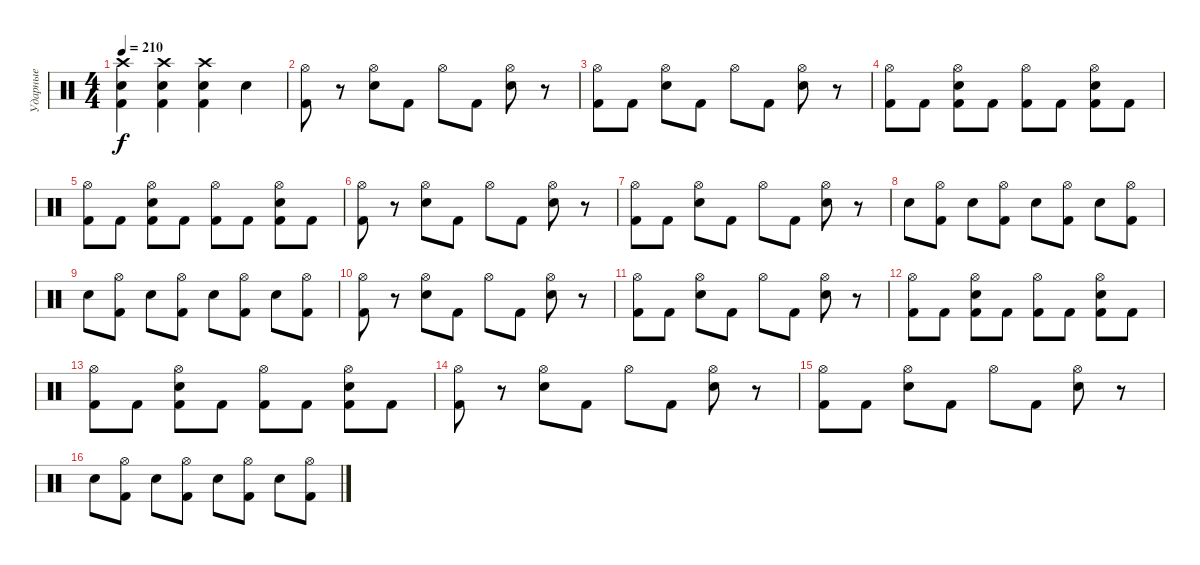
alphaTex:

\track ("Ударные" "Ударные") {instrument percussion}
\staff {score}
\articulation defaults
\ts (4 4)
\tempo 210
\clef neutral
\ks c
("Electric Snare (hit)" "Kick (hit) 2" "Crash high (hit)").4{dy f} ("Kick (hit) 2" "Electric Snare (hit)" "Crash high (hit)").4 ("Kick (hit) 2" "Electric Snare (hit)" "Crash high (hit)").4 "Electric Snare (hit)".4 |
("Kick (hit) 2" "Hi-Hat (open)").8 r.8 ("Electric Snare (hit)" "Hi-Hat (open)").8 "Kick (hit) 2".8 "Hi-Hat (open)".8 "Kick (hit) 2".8 ("Electric Snare (hit)" "Hi-Hat (open)").8 r.8 |
("Kick (hit) 2" "Hi-Hat (open)").8 "Kick (hit) 2".8 ("Electric Snare (hit)" "Hi-Hat (open)").8 "Kick (hit) 2".8 "Hi-Hat (open)".8 "Kick (hit) 2".8 ("Electric Snare (hit)" "Hi-Hat (open)").8 r.8 |
("Kick (hit) 2" "Hi-Hat (open)").8 "Kick (hit) 2".8 ("Kick (hit) 2" "Electric Snare (hit)" "Hi-Hat (open)").8 "Kick (hit) 2".8 ("Kick (hit) 2" "Hi-Hat (open)").8 "Kick (hit) 2".8 ("Kick (hit) 2" "Electric Snare (hit)" "Hi-Hat (open)").8 "Kick (hit) 2".8 |
("Kick (hit) 2" "Hi-Hat (open)").8 "Kick (hit) 2".8 ("Kick (hit) 2" "Electric Snare (hit)" "Hi-Hat (open)").8 "Kick (hit) 2".8 ("Kick (hit) 2" "Hi-Hat (open)").8 "Kick (hit) 2".8 ("Kick (hit) 2" "Electric Snare (hit)" "Hi-Hat (open)").8 "Kick (hit) 2".8 |
("Kick (hit) 2" "Hi-Hat (open)").8 r.8 ("Electric Snare (hit)" "Hi-Hat (open)").8 "Kick (hit) 2".8 "Hi-Hat (open)".8 "Kick (hit) 2".8 ("Electric Snare (hit)" "Hi-Hat (open)").8 r.8 |
("Kick (hit) 2" "Hi-Hat (open)").8 "Kick (hit) 2".8 ("Electric Snare (hit)" "Hi-Hat (open)").8 "Kick (hit) 2".8 "Hi-Hat (open)".8 "Kick (hit) 2".8 ("Electric Snare (hit)" "Hi-Hat (open)").8 r.8 |
"Electric Snare (hit)".8 ("Kick (hit) 2" "Hi-Hat (open)").8 "Electric Snare (hit)".8 ("Kick (hit) 2" "Hi-Hat (open)").8 "Electric Snare (hit)".8 ("Kick (hit) 2" "Hi-Hat (open)").8 "Electric Snare (hit)".8 ("Kick (hit) 2" "Hi-Hat (open)").8 |
"Electric Snare (hit)".8 ("Kick (hit) 2" "Hi-Hat (open)").8 "Electric Snare (hit)".8 ("Kick (hit) 2" "Hi-Hat (open)").8 "Electric Snare (hit)".8 ("Kick (hit) 2" "Hi-Hat (open)").8 "Electric Snare (hit)".8 ("Kick (hit) 2" "Hi-Hat (open)").8 |
("Kick (hit) 2" "Hi-Hat (open)").8 r.8 ("Electric Snare (hit)" "Hi-Hat (open)").8 "Kick (hit) 2".8 "Hi-Hat (open)".8 "Kick (hit) 2".8 ("Electric Snare (hit)" "Hi-Hat (open)").8 r.8 |
("Kick (hit) 2" "Hi-Hat (open)").8 "Kick (hit) 2".8 ("Electric Snare (hit)" "Hi-Hat (open)").8 "Kick (hit) 2".8 "Hi-Hat (open)".8 "Kick (hit) 2".8 ("Electric Snare (hit)" "Hi-Hat (open)").8 r.8 |
("Kick (hit) 2" "Hi-Hat (open)").8 "Kick (hit) 2".8 ("Kick (hit) 2" "Electric Snare (hit)" "Hi-Hat (open)").8 "Kick (hit) 2".8 ("Kick (hit) 2" "Hi-Hat (open)").8 "Kick (hit) 2".8 ("Kick (hit) 2" "Electric Snare (hit)" "Hi-Hat (open)").8 "Kick (hit) 2".8 |
("Kick (hit) 2" "Hi-Hat (open)").8 "Kick (hit) 2".8 ("Kick (hit) 2" "Electric Snare (hit)" "Hi-Hat (open)").8 "Kick (hit) 2".8 ("Kick (hit) 2" "Hi-Hat (open)").8 "Kick (hit) 2".8 ("Kick (hit) 2" "Electric Snare (hit)" "Hi-Hat (open)").8 "Kick (hit) 2".8 |
("Kick (hit) 2" "Hi-Hat (open)").8 r.8 ("Electric Snare (hit)" "Hi-Hat (open)").8 "Kick (hit) 2".8 "Hi-Hat (open)".8 "Kick (hit) 2".8 ("Electric Snare (hit)" "Hi-Hat (open)").8 r.8 |
("Kick (hit) 2" "Hi-Hat (open)").8 "Kick (hit) 2".8 ("Electric Snare (hit)" "Hi-Hat (open)").8 "Kick (hit) 2".8 "Hi-Hat (open)".8 "Kick (hit) 2".8 ("Electric Snare (hit)" "Hi-Hat (open)").8 r.8 |
"Electric Snare (hit)".8 ("Kick (hit) 2" "Hi-Hat (open)").8 "Electric Snare (hit)".8 ("Kick (hit) 2" "Hi-Hat (open)").8 "Electric Snare (hit)".8 ("Kick (hit) 2" "Hi-Hat (open)").8 "Electric Snare (hit)".8 ("Kick (hit) 2" "Hi-Hat (open)").8
